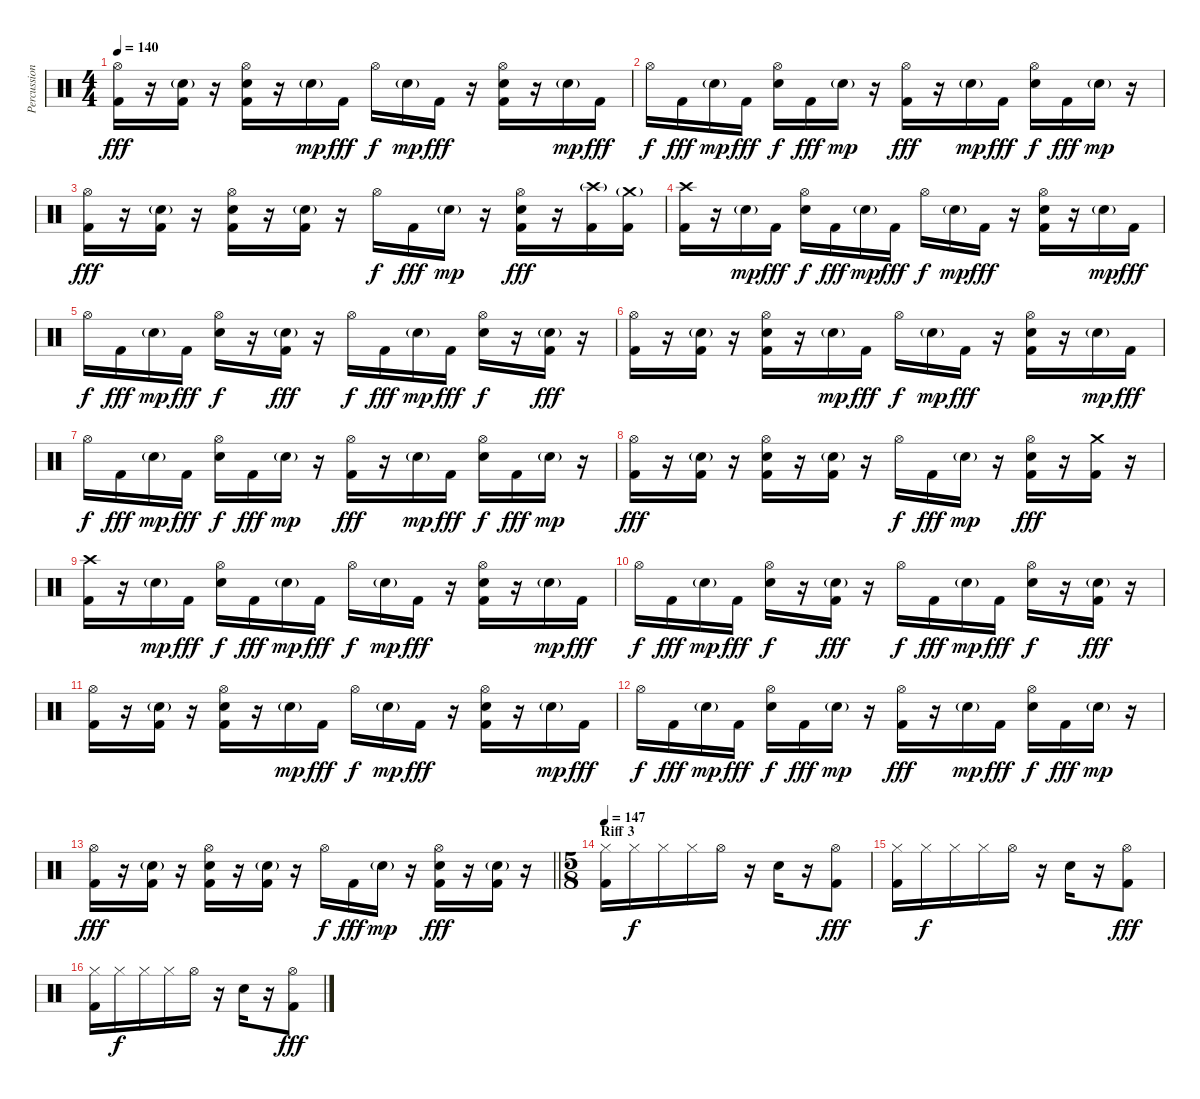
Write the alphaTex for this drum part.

\track ("Percussion" "Percussion") {instrument percussion}
\staff {score}
\articulation defaults
\ts (4 4)
\tempo 140
\clef neutral
\ks c
("Hi-Hat (open)" "Kick (hit) 2").16{dy fff} r.16 ("Electric Snare (hit)"{g} "Kick (hit) 2").16 r.16 ("Hi-Hat (open)" "Electric Snare (hit)" "Kick (hit) 2").16 r.16 "Electric Snare (hit)"{g}.16{dy mp} "Kick (hit) 2".16{dy fff} "Hi-Hat (open)".16{dy f} "Electric Snare (hit)"{g}.16{dy mp} "Kick (hit) 2".16{dy fff} r.16 ("Hi-Hat (open)" "Electric Snare (hit)" "Kick (hit) 2").16 r.16 "Electric Snare (hit)"{g}.16{dy mp} "Kick (hit) 2".16{dy fff} |
"Hi-Hat (open)".16{dy f} "Kick (hit) 2".16{dy fff} "Electric Snare (hit)"{g}.16{dy mp} "Kick (hit) 2".16{dy fff} ("Hi-Hat (open)" "Electric Snare (hit)").16{dy f} "Kick (hit) 2".16{dy fff} "Electric Snare (hit)"{g}.16{dy mp} r.16 ("Hi-Hat (open)" "Kick (hit) 2").16{dy fff} r.16 "Electric Snare (hit)"{g}.16{dy mp} "Kick (hit) 2".16{dy fff} ("Hi-Hat (open)" "Electric Snare (hit)").16{dy f} "Kick (hit) 2".16{dy fff} "Electric Snare (hit)"{g}.16{dy mp} r.16 |
("Hi-Hat (open)" "Kick (hit) 2").16{dy fff} r.16 ("Electric Snare (hit)"{g} "Kick (hit) 2").16 r.16 ("Hi-Hat (open)" "Electric Snare (hit)" "Kick (hit) 2").16 r.16 ("Electric Snare (hit)"{g} "Kick (hit) 2").16 r.16 "Hi-Hat (open)".16{dy f} "Kick (hit) 2".16{dy fff} "Electric Snare (hit)"{g}.16{dy mp} r.16 ("Hi-Hat (open)" "Electric Snare (hit)" "Kick (hit) 2").16{dy fff} r.16 ("Crash high (hit)"{g} "Kick (hit) 2").16 ("Crash medium (hit)"{g} "Kick (hit) 2").16 |
("Crash high (hit)" "Kick (hit) 2").16 r.16 "Electric Snare (hit)"{g}.16{dy mp} "Kick (hit) 2".16{dy fff} ("Hi-Hat (open)" "Electric Snare (hit)").16{dy f} "Kick (hit) 2".16{dy fff} "Electric Snare (hit)"{g}.16{dy mp} "Kick (hit) 2".16{dy fff} "Hi-Hat (open)".16{dy f} "Electric Snare (hit)"{g}.16{dy mp} "Kick (hit) 2".16{dy fff} r.16 ("Hi-Hat (open)" "Electric Snare (hit)" "Kick (hit) 2").16 r.16 "Electric Snare (hit)"{g}.16{dy mp} "Kick (hit) 2".16{dy fff} |
"Hi-Hat (open)".16{dy f} "Kick (hit) 2".16{dy fff} "Electric Snare (hit)"{g}.16{dy mp} "Kick (hit) 2".16{dy fff} ("Hi-Hat (open)" "Electric Snare (hit)").16{dy f} r.16 ("Electric Snare (hit)"{g} "Kick (hit) 2").16{dy fff} r.16 "Hi-Hat (open)".16{dy f} "Kick (hit) 2".16{dy fff} "Electric Snare (hit)"{g}.16{dy mp} "Kick (hit) 2".16{dy fff} ("Hi-Hat (open)" "Electric Snare (hit)").16{dy f} r.16 ("Electric Snare (hit)"{g} "Kick (hit) 2").16{dy fff} r.16 |
("Hi-Hat (open)" "Kick (hit) 2").16 r.16 ("Electric Snare (hit)"{g} "Kick (hit) 2").16 r.16 ("Hi-Hat (open)" "Electric Snare (hit)" "Kick (hit) 2").16 r.16 "Electric Snare (hit)"{g}.16{dy mp} "Kick (hit) 2".16{dy fff} "Hi-Hat (open)".16{dy f} "Electric Snare (hit)"{g}.16{dy mp} "Kick (hit) 2".16{dy fff} r.16 ("Hi-Hat (open)" "Electric Snare (hit)" "Kick (hit) 2").16 r.16 "Electric Snare (hit)"{g}.16{dy mp} "Kick (hit) 2".16{dy fff} |
"Hi-Hat (open)".16{dy f} "Kick (hit) 2".16{dy fff} "Electric Snare (hit)"{g}.16{dy mp} "Kick (hit) 2".16{dy fff} ("Hi-Hat (open)" "Electric Snare (hit)").16{dy f} "Kick (hit) 2".16{dy fff} "Electric Snare (hit)"{g}.16{dy mp} r.16 ("Hi-Hat (open)" "Kick (hit) 2").16{dy fff} r.16 "Electric Snare (hit)"{g}.16{dy mp} "Kick (hit) 2".16{dy fff} ("Hi-Hat (open)" "Electric Snare (hit)").16{dy f} "Kick (hit) 2".16{dy fff} "Electric Snare (hit)"{g}.16{dy mp} r.16 |
("Hi-Hat (open)" "Kick (hit) 2").16{dy fff} r.16 ("Electric Snare (hit)"{g} "Kick (hit) 2").16 r.16 ("Hi-Hat (open)" "Electric Snare (hit)" "Kick (hit) 2").16 r.16 ("Electric Snare (hit)"{g} "Kick (hit) 2").16 r.16 "Hi-Hat (open)".16{dy f} "Kick (hit) 2".16{dy fff} "Electric Snare (hit)"{g}.16{dy mp} r.16 ("Hi-Hat (open)" "Electric Snare (hit)" "Kick (hit) 2").16{dy fff} r.16 ("Crash medium (hit)" "Kick (hit) 2").16 r.16 |
("Crash high (hit)" "Kick (hit) 2").16 r.16 "Electric Snare (hit)"{g}.16{dy mp} "Kick (hit) 2".16{dy fff} ("Hi-Hat (open)" "Electric Snare (hit)").16{dy f} "Kick (hit) 2".16{dy fff} "Electric Snare (hit)"{g}.16{dy mp} "Kick (hit) 2".16{dy fff} "Hi-Hat (open)".16{dy f} "Electric Snare (hit)"{g}.16{dy mp} "Kick (hit) 2".16{dy fff} r.16 ("Hi-Hat (open)" "Electric Snare (hit)" "Kick (hit) 2").16 r.16 "Electric Snare (hit)"{g}.16{dy mp} "Kick (hit) 2".16{dy fff} |
"Hi-Hat (open)".16{dy f} "Kick (hit) 2".16{dy fff} "Electric Snare (hit)"{g}.16{dy mp} "Kick (hit) 2".16{dy fff} ("Hi-Hat (open)" "Electric Snare (hit)").16{dy f} r.16 ("Electric Snare (hit)"{g} "Kick (hit) 2").16{dy fff} r.16 "Hi-Hat (open)".16{dy f} "Kick (hit) 2".16{dy fff} "Electric Snare (hit)"{g}.16{dy mp} "Kick (hit) 2".16{dy fff} ("Hi-Hat (open)" "Electric Snare (hit)").16{dy f} r.16 ("Electric Snare (hit)"{g} "Kick (hit) 2").16{dy fff} r.16 |
("Hi-Hat (open)" "Kick (hit) 2").16 r.16 ("Electric Snare (hit)"{g} "Kick (hit) 2").16 r.16 ("Hi-Hat (open)" "Electric Snare (hit)" "Kick (hit) 2").16 r.16 "Electric Snare (hit)"{g}.16{dy mp} "Kick (hit) 2".16{dy fff} "Hi-Hat (open)".16{dy f} "Electric Snare (hit)"{g}.16{dy mp} "Kick (hit) 2".16{dy fff} r.16 ("Hi-Hat (open)" "Electric Snare (hit)" "Kick (hit) 2").16 r.16 "Electric Snare (hit)"{g}.16{dy mp} "Kick (hit) 2".16{dy fff} |
"Hi-Hat (open)".16{dy f} "Kick (hit) 2".16{dy fff} "Electric Snare (hit)"{g}.16{dy mp} "Kick (hit) 2".16{dy fff} ("Hi-Hat (open)" "Electric Snare (hit)").16{dy f} "Kick (hit) 2".16{dy fff} "Electric Snare (hit)"{g}.16{dy mp} r.16 ("Hi-Hat (open)" "Kick (hit) 2").16{dy fff} r.16 "Electric Snare (hit)"{g}.16{dy mp} "Kick (hit) 2".16{dy fff} ("Hi-Hat (open)" "Electric Snare (hit)").16{dy f} "Kick (hit) 2".16{dy fff} "Electric Snare (hit)"{g}.16{dy mp} r.16 |
\barLineRight lightlight
("Hi-Hat (open)" "Kick (hit) 2").16{dy fff} r.16 ("Electric Snare (hit)"{g} "Kick (hit) 2").16 r.16 ("Hi-Hat (open)" "Electric Snare (hit)" "Kick (hit) 2").16 r.16 ("Electric Snare (hit)"{g} "Kick (hit) 2").16 r.16 "Hi-Hat (open)".16{dy f} "Kick (hit) 2".16{dy fff} "Electric Snare (hit)"{g}.16{dy mp} r.16 ("Hi-Hat (open)" "Electric Snare (hit)" "Kick (hit) 2").16{dy fff} r.16 ("Electric Snare (hit)"{g} "Kick (hit) 2").16 r.16 |
\ts (5 8)
\section ("" "Riff 3")
\tempo 147
("Hi-Hat (closed)" "Kick (hit) 2").16 "Hi-Hat (closed)".16{dy f} "Hi-Hat (closed)".16 "Hi-Hat (closed)".16 "Hi-Hat (open)".16 r.16 "Electric Snare (hit)".16 r.16 ("Hi-Hat (open)" "Kick (hit) 2").8{dy fff} |
("Hi-Hat (closed)" "Kick (hit) 2").16 "Hi-Hat (closed)".16{dy f} "Hi-Hat (closed)".16 "Hi-Hat (closed)".16 "Hi-Hat (open)".16 r.16 "Electric Snare (hit)".16 r.16 ("Hi-Hat (open)" "Kick (hit) 2").8{dy fff} |
("Hi-Hat (closed)" "Kick (hit) 2").16 "Hi-Hat (closed)".16{dy f} "Hi-Hat (closed)".16 "Hi-Hat (closed)".16 "Hi-Hat (open)".16 r.16 "Electric Snare (hit)".16 r.16 ("Hi-Hat (open)" "Kick (hit) 2").8{dy fff}
